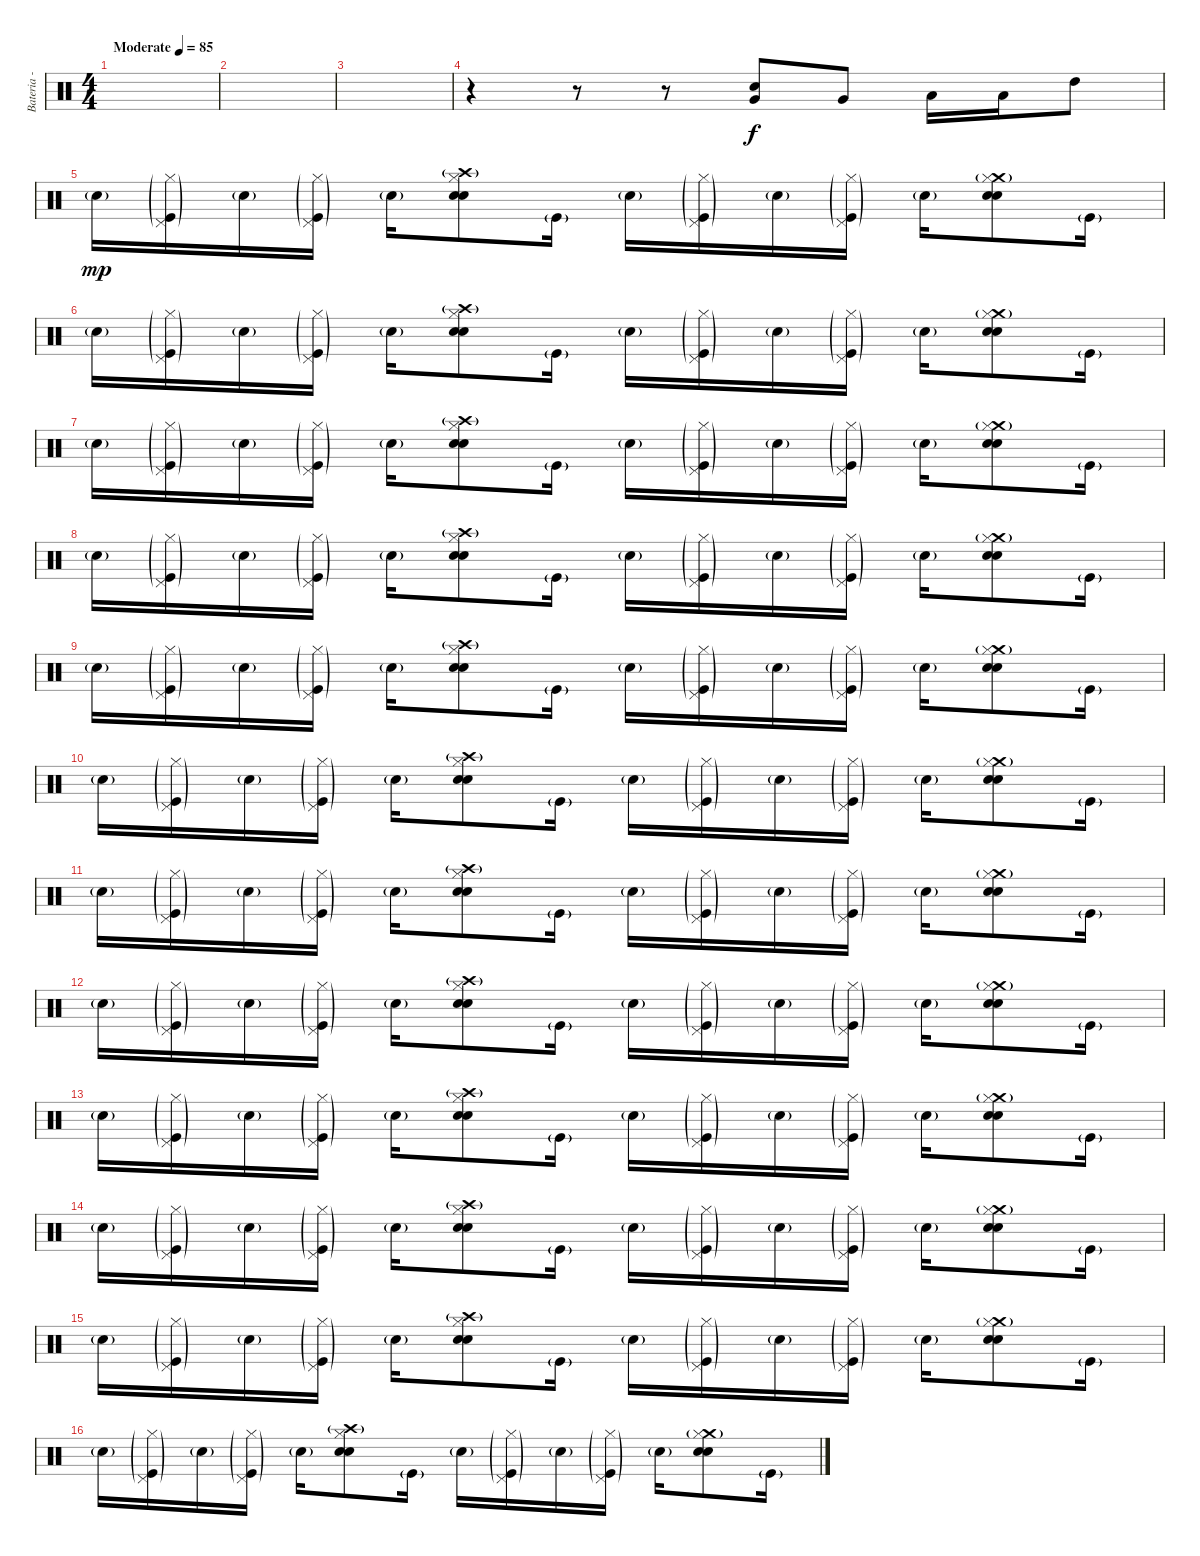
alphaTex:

\track ("Bateria - GONÇALO" "Bateria - ") {instrument percussion}
\staff {score}
\articulation defaults
\ts (4 4)
\tempo (85 "Moderate")
\clef neutral
\ks c
|
|
|
r.4 r.8 r.8 ("Very Low Tom (hit)" "Electric Snare (hit)").8{volume 13} "Very Low Tom (hit)".8{volume 13} "Low Floor Tom (hit)".16{volume 13} "Low Floor Tom (hit)".16{volume 13} "High Tom (hit)".8{volume 13} |
"Electric Snare (hit)"{g}.16{dy mp} ("Hi-Hat (closed)"{g} "Pedal Hi-Hat (hit)"{g} "Kick (hit)"{g}).16 "Snare (hit) 2"{g}.16 ("Hi-Hat (closed)"{g} "Pedal Hi-Hat (hit)"{g} "Kick (hit)"{g}).16 "Electric Snare (hit)"{g}.16 ("Crash high (hit)"{g} "Snare (hit) 2" "Electric Snare (hit)" "Hi-Hat (closed)").8 "Kick (hit)"{g}.16 "Electric Snare (hit)"{g}.16 ("Hi-Hat (closed)"{g} "Pedal Hi-Hat (hit)"{g} "Kick (hit)"{g}).16 "Snare (hit) 2"{g}.16 ("Hi-Hat (closed)"{g} "Pedal Hi-Hat (hit)"{g} "Kick (hit)"{g}).16 "Electric Snare (hit)"{g}.16 ("Crash medium (hit)"{g} "Snare (hit) 2" "Electric Snare (hit)" "Hi-Hat (closed)").8 "Kick (hit)"{g}.16 |
"Electric Snare (hit)"{g}.16 ("Hi-Hat (closed)"{g} "Pedal Hi-Hat (hit)"{g} "Kick (hit)"{g}).16 "Snare (hit) 2"{g}.16 ("Hi-Hat (closed)"{g} "Pedal Hi-Hat (hit)"{g} "Kick (hit)"{g}).16 "Electric Snare (hit)"{g}.16 ("Crash high (hit)"{g} "Snare (hit) 2" "Electric Snare (hit)" "Hi-Hat (closed)").8 "Kick (hit)"{g}.16 "Electric Snare (hit)"{g}.16 ("Hi-Hat (closed)"{g} "Pedal Hi-Hat (hit)"{g} "Kick (hit)"{g}).16 "Snare (hit) 2"{g}.16 ("Hi-Hat (closed)"{g} "Pedal Hi-Hat (hit)"{g} "Kick (hit)"{g}).16 "Electric Snare (hit)"{g}.16 ("Crash medium (hit)"{g} "Snare (hit) 2" "Electric Snare (hit)" "Hi-Hat (closed)").8 "Kick (hit)"{g}.16 |
"Electric Snare (hit)"{g}.16 ("Hi-Hat (closed)"{g} "Pedal Hi-Hat (hit)"{g} "Kick (hit)"{g}).16 "Snare (hit) 2"{g}.16 ("Hi-Hat (closed)"{g} "Pedal Hi-Hat (hit)"{g} "Kick (hit)"{g}).16 "Electric Snare (hit)"{g}.16 ("Crash high (hit)"{g} "Snare (hit) 2" "Electric Snare (hit)" "Hi-Hat (closed)").8 "Kick (hit)"{g}.16 "Electric Snare (hit)"{g}.16 ("Hi-Hat (closed)"{g} "Pedal Hi-Hat (hit)"{g} "Kick (hit)"{g}).16 "Snare (hit) 2"{g}.16 ("Hi-Hat (closed)"{g} "Pedal Hi-Hat (hit)"{g} "Kick (hit)"{g}).16 "Electric Snare (hit)"{g}.16 ("Crash medium (hit)"{g} "Snare (hit) 2" "Electric Snare (hit)" "Hi-Hat (closed)").8 "Kick (hit)"{g}.16 |
"Electric Snare (hit)"{g}.16 ("Hi-Hat (closed)"{g} "Pedal Hi-Hat (hit)"{g} "Kick (hit)"{g}).16 "Snare (hit) 2"{g}.16 ("Hi-Hat (closed)"{g} "Pedal Hi-Hat (hit)"{g} "Kick (hit)"{g}).16 "Electric Snare (hit)"{g}.16 ("Crash high (hit)"{g} "Snare (hit) 2" "Electric Snare (hit)" "Hi-Hat (closed)").8 "Kick (hit)"{g}.16 "Electric Snare (hit)"{g}.16 ("Hi-Hat (closed)"{g} "Pedal Hi-Hat (hit)"{g} "Kick (hit)"{g}).16 "Snare (hit) 2"{g}.16 ("Hi-Hat (closed)"{g} "Pedal Hi-Hat (hit)"{g} "Kick (hit)"{g}).16 "Electric Snare (hit)"{g}.16 ("Crash medium (hit)"{g} "Snare (hit) 2" "Electric Snare (hit)" "Hi-Hat (closed)").8 "Kick (hit)"{g}.16 |
"Electric Snare (hit)"{g}.16 ("Hi-Hat (closed)"{g} "Pedal Hi-Hat (hit)"{g} "Kick (hit)"{g}).16 "Snare (hit) 2"{g}.16 ("Hi-Hat (closed)"{g} "Pedal Hi-Hat (hit)"{g} "Kick (hit)"{g}).16 "Electric Snare (hit)"{g}.16 ("Crash high (hit)"{g} "Snare (hit) 2" "Electric Snare (hit)" "Hi-Hat (closed)").8 "Kick (hit)"{g}.16 "Electric Snare (hit)"{g}.16 ("Hi-Hat (closed)"{g} "Pedal Hi-Hat (hit)"{g} "Kick (hit)"{g}).16 "Snare (hit) 2"{g}.16 ("Hi-Hat (closed)"{g} "Pedal Hi-Hat (hit)"{g} "Kick (hit)"{g}).16 "Electric Snare (hit)"{g}.16 ("Crash medium (hit)"{g} "Snare (hit) 2" "Electric Snare (hit)" "Hi-Hat (closed)").8 "Kick (hit)"{g}.16 |
"Electric Snare (hit)"{g}.16 ("Hi-Hat (closed)"{g} "Pedal Hi-Hat (hit)"{g} "Kick (hit)"{g}).16 "Snare (hit) 2"{g}.16 ("Hi-Hat (closed)"{g} "Pedal Hi-Hat (hit)"{g} "Kick (hit)"{g}).16 "Electric Snare (hit)"{g}.16 ("Crash high (hit)"{g} "Snare (hit) 2" "Electric Snare (hit)" "Hi-Hat (closed)").8 "Kick (hit)"{g}.16 "Electric Snare (hit)"{g}.16 ("Hi-Hat (closed)"{g} "Pedal Hi-Hat (hit)"{g} "Kick (hit)"{g}).16 "Snare (hit) 2"{g}.16 ("Hi-Hat (closed)"{g} "Pedal Hi-Hat (hit)"{g} "Kick (hit)"{g}).16 "Electric Snare (hit)"{g}.16 ("Crash medium (hit)"{g} "Snare (hit) 2" "Electric Snare (hit)" "Hi-Hat (closed)").8 "Kick (hit)"{g}.16 |
"Electric Snare (hit)"{g}.16 ("Hi-Hat (closed)"{g} "Pedal Hi-Hat (hit)"{g} "Kick (hit)"{g}).16 "Snare (hit) 2"{g}.16 ("Hi-Hat (closed)"{g} "Pedal Hi-Hat (hit)"{g} "Kick (hit)"{g}).16 "Electric Snare (hit)"{g}.16 ("Crash high (hit)"{g} "Snare (hit) 2" "Electric Snare (hit)" "Hi-Hat (closed)").8 "Kick (hit)"{g}.16 "Electric Snare (hit)"{g}.16 ("Hi-Hat (closed)"{g} "Pedal Hi-Hat (hit)"{g} "Kick (hit)"{g}).16 "Snare (hit) 2"{g}.16 ("Hi-Hat (closed)"{g} "Pedal Hi-Hat (hit)"{g} "Kick (hit)"{g}).16 "Electric Snare (hit)"{g}.16 ("Crash medium (hit)"{g} "Snare (hit) 2" "Electric Snare (hit)" "Hi-Hat (closed)").8 "Kick (hit)"{g}.16 |
"Electric Snare (hit)"{g}.16 ("Hi-Hat (closed)"{g} "Pedal Hi-Hat (hit)"{g} "Kick (hit)"{g}).16 "Snare (hit) 2"{g}.16 ("Hi-Hat (closed)"{g} "Pedal Hi-Hat (hit)"{g} "Kick (hit)"{g}).16 "Electric Snare (hit)"{g}.16 ("Crash high (hit)"{g} "Snare (hit) 2" "Electric Snare (hit)" "Hi-Hat (closed)").8 "Kick (hit)"{g}.16 "Electric Snare (hit)"{g}.16 ("Hi-Hat (closed)"{g} "Pedal Hi-Hat (hit)"{g} "Kick (hit)"{g}).16 "Snare (hit) 2"{g}.16 ("Hi-Hat (closed)"{g} "Pedal Hi-Hat (hit)"{g} "Kick (hit)"{g}).16 "Electric Snare (hit)"{g}.16 ("Crash medium (hit)"{g} "Snare (hit) 2" "Electric Snare (hit)" "Hi-Hat (closed)").8 "Kick (hit)"{g}.16 |
"Electric Snare (hit)"{g}.16 ("Hi-Hat (closed)"{g} "Pedal Hi-Hat (hit)"{g} "Kick (hit)"{g}).16 "Snare (hit) 2"{g}.16 ("Hi-Hat (closed)"{g} "Pedal Hi-Hat (hit)"{g} "Kick (hit)"{g}).16 "Electric Snare (hit)"{g}.16 ("Crash high (hit)"{g} "Snare (hit) 2" "Electric Snare (hit)" "Hi-Hat (closed)").8 "Kick (hit)"{g}.16 "Electric Snare (hit)"{g}.16 ("Hi-Hat (closed)"{g} "Pedal Hi-Hat (hit)"{g} "Kick (hit)"{g}).16 "Snare (hit) 2"{g}.16 ("Hi-Hat (closed)"{g} "Pedal Hi-Hat (hit)"{g} "Kick (hit)"{g}).16 "Electric Snare (hit)"{g}.16 ("Crash medium (hit)"{g} "Snare (hit) 2" "Electric Snare (hit)" "Hi-Hat (closed)").8 "Kick (hit)"{g}.16 |
"Electric Snare (hit)"{g}.16 ("Hi-Hat (closed)"{g} "Pedal Hi-Hat (hit)"{g} "Kick (hit)"{g}).16 "Snare (hit) 2"{g}.16 ("Hi-Hat (closed)"{g} "Pedal Hi-Hat (hit)"{g} "Kick (hit)"{g}).16 "Electric Snare (hit)"{g}.16 ("Crash high (hit)"{g} "Snare (hit) 2" "Electric Snare (hit)" "Hi-Hat (closed)").8 "Kick (hit)"{g}.16 "Electric Snare (hit)"{g}.16 ("Hi-Hat (closed)"{g} "Pedal Hi-Hat (hit)"{g} "Kick (hit)"{g}).16 "Snare (hit) 2"{g}.16 ("Hi-Hat (closed)"{g} "Pedal Hi-Hat (hit)"{g} "Kick (hit)"{g}).16 "Electric Snare (hit)"{g}.16 ("Crash medium (hit)"{g} "Snare (hit) 2" "Electric Snare (hit)" "Hi-Hat (closed)").8 "Kick (hit)"{g}.16 |
"Electric Snare (hit)"{g}.16 ("Hi-Hat (closed)"{g} "Pedal Hi-Hat (hit)"{g} "Kick (hit)"{g}).16 "Snare (hit) 2"{g}.16 ("Hi-Hat (closed)"{g} "Pedal Hi-Hat (hit)"{g} "Kick (hit)"{g}).16 "Electric Snare (hit)"{g}.16 ("Crash high (hit)"{g} "Snare (hit) 2" "Electric Snare (hit)" "Hi-Hat (closed)").8 "Kick (hit)"{g}.16 "Electric Snare (hit)"{g}.16 ("Hi-Hat (closed)"{g} "Pedal Hi-Hat (hit)"{g} "Kick (hit)"{g}).16 "Snare (hit) 2"{g}.16 ("Hi-Hat (closed)"{g} "Pedal Hi-Hat (hit)"{g} "Kick (hit)"{g}).16 "Electric Snare (hit)"{g}.16 ("Crash medium (hit)"{g} "Snare (hit) 2" "Electric Snare (hit)" "Hi-Hat (closed)").8 "Kick (hit)"{g}.16 |
"Electric Snare (hit)"{g}.16 ("Hi-Hat (closed)"{g} "Pedal Hi-Hat (hit)"{g} "Kick (hit)"{g}).16 "Snare (hit) 2"{g}.16 ("Hi-Hat (closed)"{g} "Pedal Hi-Hat (hit)"{g} "Kick (hit)"{g}).16 "Electric Snare (hit)"{g}.16 ("Crash high (hit)"{g} "Snare (hit) 2" "Electric Snare (hit)" "Hi-Hat (closed)").8 "Kick (hit)"{g}.16 "Electric Snare (hit)"{g}.16 ("Hi-Hat (closed)"{g} "Pedal Hi-Hat (hit)"{g} "Kick (hit)"{g}).16 "Snare (hit) 2"{g}.16 ("Hi-Hat (closed)"{g} "Pedal Hi-Hat (hit)"{g} "Kick (hit)"{g}).16 "Electric Snare (hit)"{g}.16 ("Crash medium (hit)"{g} "Snare (hit) 2" "Electric Snare (hit)" "Hi-Hat (closed)").8 "Kick (hit)"{g}.16
